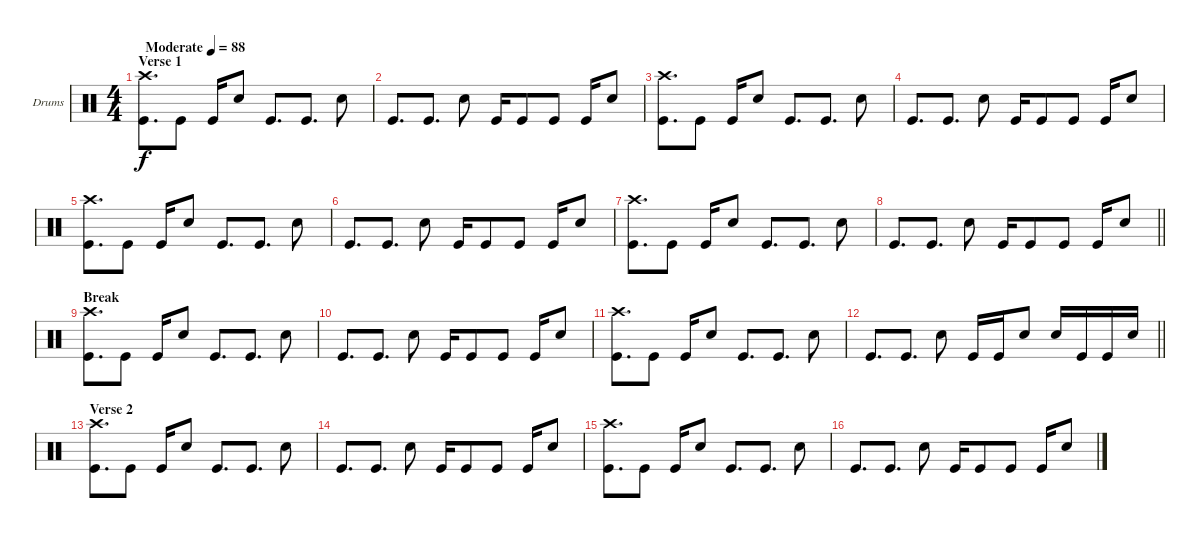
\bracketExtendMode groupsimilarinstruments
\firstSystemTrackNameOrientation horizontal
\otherSystemsTrackNameOrientation horizontal
\track ("Drums" "Drums") {instrument percussion}
\staff {score}
\articulation defaults
\ts (4 4)
\beaming (8 2 2 2 2)
\section ("" "Verse 1")
\tempo (88 "Moderate")
\clef neutral
\ks c
("Kick (hit)" "Crash high (hit)").8{d dy f} "Kick (hit)".8 "Kick (hit)".16 "Snare (hit) 2".8 "Kick (hit)".8{d} "Kick (hit)".8{d} "Snare (hit) 2".8 |
"Kick (hit)".8{d} "Kick (hit)".8{d} "Snare (hit) 2".8 "Kick (hit)".16 "Kick (hit)".8 "Kick (hit)".8 "Kick (hit)".16 "Snare (hit) 2".8 |
("Kick (hit)" "Crash high (hit)").8{d} "Kick (hit)".8 "Kick (hit)".16 "Snare (hit) 2".8 "Kick (hit)".8{d} "Kick (hit)".8{d} "Snare (hit) 2".8 |
"Kick (hit)".8{d} "Kick (hit)".8{d} "Snare (hit) 2".8 "Kick (hit)".16 "Kick (hit)".8 "Kick (hit)".8 "Kick (hit)".16 "Snare (hit) 2".8 |
("Kick (hit)" "Crash high (hit)").8{d} "Kick (hit)".8 "Kick (hit)".16 "Snare (hit) 2".8 "Kick (hit)".8{d} "Kick (hit)".8{d} "Snare (hit) 2".8 |
"Kick (hit)".8{d} "Kick (hit)".8{d} "Snare (hit) 2".8 "Kick (hit)".16 "Kick (hit)".8 "Kick (hit)".8 "Kick (hit)".16 "Snare (hit) 2".8 |
("Kick (hit)" "Crash high (hit)").8{d} "Kick (hit)".8 "Kick (hit)".16 "Snare (hit) 2".8 "Kick (hit)".8{d} "Kick (hit)".8{d} "Snare (hit) 2".8 |
\barLineRight lightlight "Kick (hit)".8{d} "Kick (hit)".8{d} "Snare (hit) 2".8 "Kick (hit)".16 "Kick (hit)".8 "Kick (hit)".8 "Kick (hit)".16 "Snare (hit) 2".8
|
\section ("" "Break")
("Kick (hit)" "Crash high (hit)").8{d} "Kick (hit)".8 "Kick (hit)".16 "Snare (hit) 2".8 "Kick (hit)".8{d} "Kick (hit)".8{d} "Snare (hit) 2".8 |
"Kick (hit)".8{d} "Kick (hit)".8{d} "Snare (hit) 2".8 "Kick (hit)".16 "Kick (hit)".8 "Kick (hit)".8 "Kick (hit)".16 "Snare (hit) 2".8 |
("Kick (hit)" "Crash high (hit)").8{d} "Kick (hit)".8 "Kick (hit)".16 "Snare (hit) 2".8 "Kick (hit)".8{d} "Kick (hit)".8{d} "Snare (hit) 2".8 |
\barLineRight lightlight "Kick (hit)".8{d} "Kick (hit)".8{d} "Snare (hit) 2".8 "Kick (hit)".16 "Kick (hit)".16 "Snare (hit) 2".8 "Snare (hit) 2".16 "Kick (hit)".16 "Kick (hit)".16 "Snare (hit) 2".16
|
\section ("" "Verse 2")
("Kick (hit)" "Crash high (hit)").8{d} "Kick (hit)".8 "Kick (hit)".16 "Snare (hit) 2".8 "Kick (hit)".8{d} "Kick (hit)".8{d} "Snare (hit) 2".8 |
"Kick (hit)".8{d} "Kick (hit)".8{d} "Snare (hit) 2".8 "Kick (hit)".16 "Kick (hit)".8 "Kick (hit)".8 "Kick (hit)".16 "Snare (hit) 2".8 |
("Kick (hit)" "Crash high (hit)").8{d} "Kick (hit)".8 "Kick (hit)".16 "Snare (hit) 2".8 "Kick (hit)".8{d} "Kick (hit)".8{d} "Snare (hit) 2".8 |
"Kick (hit)".8{d} "Kick (hit)".8{d} "Snare (hit) 2".8 "Kick (hit)".16 "Kick (hit)".8 "Kick (hit)".8 "Kick (hit)".16 "Snare (hit) 2".8
